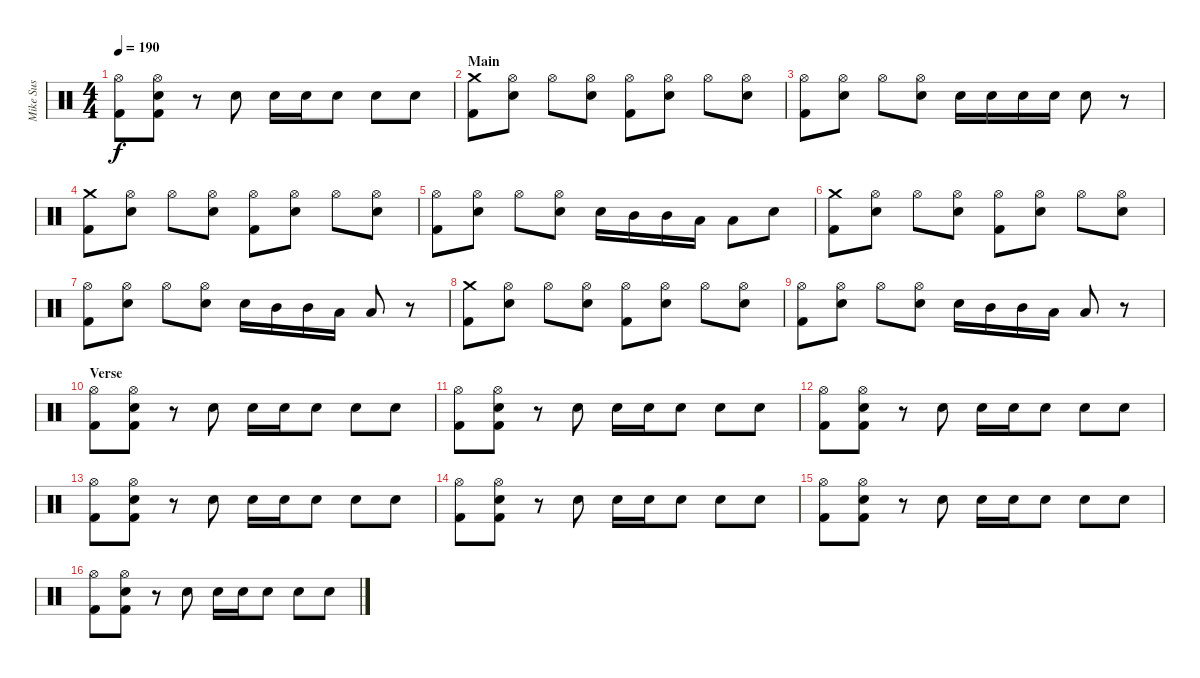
\track ("Mike Sus" "Mike Sus") {instrument percussion}
\staff {score}
\articulation defaults
\ts (4 4)
\tempo 190
\clef neutral
\ks c
("Hi-Hat (open)" "Kick (hit) 2").8{dy f} ("Hi-Hat (open)" "Electric Snare (hit)" "Kick (hit) 2").8 r.8 "Electric Snare (hit)".8 "Electric Snare (hit)".16 "Electric Snare (hit)".16 "Electric Snare (hit)".8 "Electric Snare (hit)".8 "Electric Snare (hit)".8 |
\section ("" "Main")
("Crash medium (hit)" "Kick (hit) 2").8 ("Hi-Hat (open)" "Electric Snare (hit)").8 "Hi-Hat (open)".8 ("Hi-Hat (open)" "Electric Snare (hit)").8 ("Hi-Hat (open)" "Kick (hit) 2").8 ("Hi-Hat (open)" "Electric Snare (hit)").8 "Hi-Hat (open)".8 ("Hi-Hat (open)" "Electric Snare (hit)").8 |
("Hi-Hat (open)" "Kick (hit) 2").8 ("Hi-Hat (open)" "Electric Snare (hit)").8 "Hi-Hat (open)".8 ("Hi-Hat (open)" "Electric Snare (hit)").8 "Electric Snare (hit)".16 "Electric Snare (hit)".16 "Electric Snare (hit)".16 "Electric Snare (hit)".16 "Electric Snare (hit)".8 r.8 |
("Crash medium (hit)" "Kick (hit) 2").8 ("Hi-Hat (open)" "Electric Snare (hit)").8 "Hi-Hat (open)".8 ("Hi-Hat (open)" "Electric Snare (hit)").8 ("Hi-Hat (open)" "Kick (hit) 2").8 ("Hi-Hat (open)" "Electric Snare (hit)").8 "Hi-Hat (open)".8 ("Hi-Hat (open)" "Electric Snare (hit)").8 |
("Hi-Hat (open)" "Kick (hit) 2").8 ("Hi-Hat (open)" "Electric Snare (hit)").8 "Hi-Hat (open)".8 ("Hi-Hat (open)" "Electric Snare (hit)").8 "Electric Snare (hit)".16 "Mid Tom (hit)".16 "Mid Tom (hit)".16 "Low Tom (hit)".16 "Low Tom (hit)".8 "Electric Snare (hit)".8 |
("Crash medium (hit)" "Kick (hit) 2").8 ("Hi-Hat (open)" "Electric Snare (hit)").8 "Hi-Hat (open)".8 ("Hi-Hat (open)" "Electric Snare (hit)").8 ("Hi-Hat (open)" "Kick (hit) 2").8 ("Hi-Hat (open)" "Electric Snare (hit)").8 "Hi-Hat (open)".8 ("Hi-Hat (open)" "Electric Snare (hit)").8 |
("Hi-Hat (open)" "Kick (hit) 2").8 ("Hi-Hat (open)" "Electric Snare (hit)").8 "Hi-Hat (open)".8 ("Hi-Hat (open)" "Electric Snare (hit)").8 "Electric Snare (hit)".16 "Mid Tom (hit)".16 "Mid Tom (hit)".16 "Low Tom (hit)".16 "Low Tom (hit)".8 r.8 |
("Crash medium (hit)" "Kick (hit) 2").8 ("Hi-Hat (open)" "Electric Snare (hit)").8 "Hi-Hat (open)".8 ("Hi-Hat (open)" "Electric Snare (hit)").8 ("Hi-Hat (open)" "Kick (hit) 2").8 ("Hi-Hat (open)" "Electric Snare (hit)").8 "Hi-Hat (open)".8 ("Hi-Hat (open)" "Electric Snare (hit)").8 |
("Hi-Hat (open)" "Kick (hit) 2").8 ("Hi-Hat (open)" "Electric Snare (hit)").8 "Hi-Hat (open)".8 ("Hi-Hat (open)" "Electric Snare (hit)").8 "Electric Snare (hit)".16 "Mid Tom (hit)".16 "Mid Tom (hit)".16 "Low Tom (hit)".16 "Low Tom (hit)".8 r.8 |
\section ("" "Verse")
("Hi-Hat (open)" "Kick (hit) 2").8 ("Hi-Hat (open)" "Electric Snare (hit)" "Kick (hit) 2").8 r.8 "Electric Snare (hit)".8 "Electric Snare (hit)".16 "Electric Snare (hit)".16 "Electric Snare (hit)".8 "Electric Snare (hit)".8 "Electric Snare (hit)".8 |
("Hi-Hat (open)" "Kick (hit) 2").8 ("Hi-Hat (open)" "Electric Snare (hit)" "Kick (hit) 2").8 r.8 "Electric Snare (hit)".8 "Electric Snare (hit)".16 "Electric Snare (hit)".16 "Electric Snare (hit)".8 "Electric Snare (hit)".8 "Electric Snare (hit)".8 |
("Hi-Hat (open)" "Kick (hit) 2").8 ("Hi-Hat (open)" "Electric Snare (hit)" "Kick (hit) 2").8 r.8 "Electric Snare (hit)".8 "Electric Snare (hit)".16 "Electric Snare (hit)".16 "Electric Snare (hit)".8 "Electric Snare (hit)".8 "Electric Snare (hit)".8 |
("Hi-Hat (open)" "Kick (hit) 2").8 ("Hi-Hat (open)" "Electric Snare (hit)" "Kick (hit) 2").8 r.8 "Electric Snare (hit)".8 "Electric Snare (hit)".16 "Electric Snare (hit)".16 "Electric Snare (hit)".8 "Electric Snare (hit)".8 "Electric Snare (hit)".8 |
("Hi-Hat (open)" "Kick (hit) 2").8 ("Hi-Hat (open)" "Electric Snare (hit)" "Kick (hit) 2").8 r.8 "Electric Snare (hit)".8 "Electric Snare (hit)".16 "Electric Snare (hit)".16 "Electric Snare (hit)".8 "Electric Snare (hit)".8 "Electric Snare (hit)".8 |
("Hi-Hat (open)" "Kick (hit) 2").8 ("Hi-Hat (open)" "Electric Snare (hit)" "Kick (hit) 2").8 r.8 "Electric Snare (hit)".8 "Electric Snare (hit)".16 "Electric Snare (hit)".16 "Electric Snare (hit)".8 "Electric Snare (hit)".8 "Electric Snare (hit)".8 |
("Hi-Hat (open)" "Kick (hit) 2").8 ("Hi-Hat (open)" "Electric Snare (hit)" "Kick (hit) 2").8 r.8 "Electric Snare (hit)".8 "Electric Snare (hit)".16 "Electric Snare (hit)".16 "Electric Snare (hit)".8 "Electric Snare (hit)".8 "Electric Snare (hit)".8
